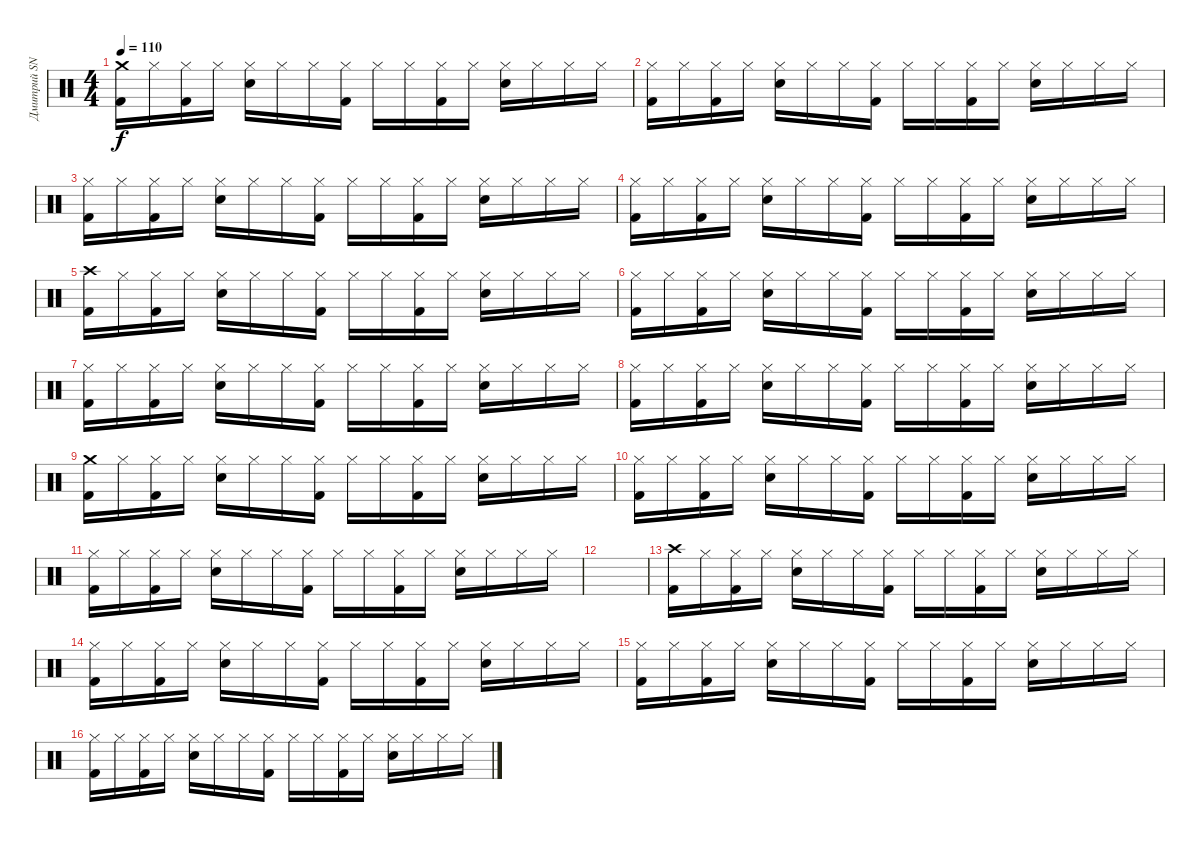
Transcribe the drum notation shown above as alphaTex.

\track ("Дмитрий SNAKE Хакимов" "Дмитрий SN") {instrument percussion}
\staff {score}
\articulation defaults
\ts (4 4)
\tempo 110
\clef neutral
\ks c
("Crash medium (hit)" "Kick (hit) 2").16{dy f} "Hi-Hat (closed)".16 ("Hi-Hat (closed)" "Kick (hit) 2").16 "Hi-Hat (closed)".16 ("Hi-Hat (closed)" "Snare (hit) 2").16 "Hi-Hat (closed)".16 "Hi-Hat (closed)".16 ("Hi-Hat (closed)" "Kick (hit) 2").16 "Hi-Hat (closed)".16 "Hi-Hat (closed)".16 ("Hi-Hat (closed)" "Kick (hit) 2").16 "Hi-Hat (closed)".16 ("Hi-Hat (closed)" "Snare (hit) 2").16 "Hi-Hat (closed)".16 "Hi-Hat (closed)".16 "Hi-Hat (closed)".16 |
("Hi-Hat (closed)" "Kick (hit) 2").16 "Hi-Hat (closed)".16 ("Hi-Hat (closed)" "Kick (hit) 2").16 "Hi-Hat (closed)".16 ("Hi-Hat (closed)" "Snare (hit) 2").16 "Hi-Hat (closed)".16 "Hi-Hat (closed)".16 ("Hi-Hat (closed)" "Kick (hit) 2").16 "Hi-Hat (closed)".16 "Hi-Hat (closed)".16 ("Hi-Hat (closed)" "Kick (hit) 2").16 "Hi-Hat (closed)".16 ("Hi-Hat (closed)" "Snare (hit) 2").16 "Hi-Hat (closed)".16 "Hi-Hat (closed)".16 "Hi-Hat (closed)".16 |
("Hi-Hat (closed)" "Kick (hit) 2").16 "Hi-Hat (closed)".16 ("Hi-Hat (closed)" "Kick (hit) 2").16 "Hi-Hat (closed)".16 ("Hi-Hat (closed)" "Snare (hit) 2").16 "Hi-Hat (closed)".16 "Hi-Hat (closed)".16 ("Hi-Hat (closed)" "Kick (hit) 2").16 "Hi-Hat (closed)".16 "Hi-Hat (closed)".16 ("Hi-Hat (closed)" "Kick (hit) 2").16 "Hi-Hat (closed)".16 ("Hi-Hat (closed)" "Snare (hit) 2").16 "Hi-Hat (closed)".16 "Hi-Hat (closed)".16 "Hi-Hat (closed)".16 |
("Hi-Hat (closed)" "Kick (hit) 2").16 "Hi-Hat (closed)".16 ("Hi-Hat (closed)" "Kick (hit) 2").16 "Hi-Hat (closed)".16 ("Hi-Hat (closed)" "Snare (hit) 2").16 "Hi-Hat (closed)".16 "Hi-Hat (closed)".16 ("Hi-Hat (closed)" "Kick (hit) 2").16 "Hi-Hat (closed)".16 "Hi-Hat (closed)".16 ("Hi-Hat (closed)" "Kick (hit) 2").16 "Hi-Hat (closed)".16 ("Hi-Hat (closed)" "Snare (hit) 2").16 "Hi-Hat (closed)".16 "Hi-Hat (closed)".16 "Hi-Hat (closed)".16 |
("Crash high (hit)" "Kick (hit) 2").16 "Hi-Hat (closed)".16 ("Hi-Hat (closed)" "Kick (hit) 2").16 "Hi-Hat (closed)".16 ("Hi-Hat (closed)" "Snare (hit) 2").16 "Hi-Hat (closed)".16 "Hi-Hat (closed)".16 ("Hi-Hat (closed)" "Kick (hit) 2").16 "Hi-Hat (closed)".16 "Hi-Hat (closed)".16 ("Hi-Hat (closed)" "Kick (hit) 2").16 "Hi-Hat (closed)".16 ("Hi-Hat (closed)" "Snare (hit) 2").16 "Hi-Hat (closed)".16 "Hi-Hat (closed)".16 "Hi-Hat (closed)".16 |
("Hi-Hat (closed)" "Kick (hit) 2").16 "Hi-Hat (closed)".16 ("Hi-Hat (closed)" "Kick (hit) 2").16 "Hi-Hat (closed)".16 ("Hi-Hat (closed)" "Snare (hit) 2").16 "Hi-Hat (closed)".16 "Hi-Hat (closed)".16 ("Hi-Hat (closed)" "Kick (hit) 2").16 "Hi-Hat (closed)".16 "Hi-Hat (closed)".16 ("Hi-Hat (closed)" "Kick (hit) 2").16 "Hi-Hat (closed)".16 ("Hi-Hat (closed)" "Snare (hit) 2").16 "Hi-Hat (closed)".16 "Hi-Hat (closed)".16 "Hi-Hat (closed)".16 |
("Hi-Hat (closed)" "Kick (hit) 2").16 "Hi-Hat (closed)".16 ("Hi-Hat (closed)" "Kick (hit) 2").16 "Hi-Hat (closed)".16 ("Hi-Hat (closed)" "Snare (hit) 2").16 "Hi-Hat (closed)".16 "Hi-Hat (closed)".16 ("Hi-Hat (closed)" "Kick (hit) 2").16 "Hi-Hat (closed)".16 "Hi-Hat (closed)".16 ("Hi-Hat (closed)" "Kick (hit) 2").16 "Hi-Hat (closed)".16 ("Hi-Hat (closed)" "Snare (hit) 2").16 "Hi-Hat (closed)".16 "Hi-Hat (closed)".16 "Hi-Hat (closed)".16 |
("Hi-Hat (closed)" "Kick (hit) 2").16 "Hi-Hat (closed)".16 ("Hi-Hat (closed)" "Kick (hit) 2").16 "Hi-Hat (closed)".16 ("Hi-Hat (closed)" "Snare (hit) 2").16 "Hi-Hat (closed)".16 "Hi-Hat (closed)".16 ("Hi-Hat (closed)" "Kick (hit) 2").16 "Hi-Hat (closed)".16 "Hi-Hat (closed)".16 ("Hi-Hat (closed)" "Kick (hit) 2").16 "Hi-Hat (closed)".16 ("Hi-Hat (closed)" "Snare (hit) 2").16 "Hi-Hat (closed)".16 "Hi-Hat (closed)".16 "Hi-Hat (closed)".16 |
("Crash medium (hit)" "Kick (hit) 2").16 "Hi-Hat (closed)".16 ("Hi-Hat (closed)" "Kick (hit) 2").16 "Hi-Hat (closed)".16 ("Hi-Hat (closed)" "Snare (hit) 2").16 "Hi-Hat (closed)".16 "Hi-Hat (closed)".16 ("Hi-Hat (closed)" "Kick (hit) 2").16 "Hi-Hat (closed)".16 "Hi-Hat (closed)".16 ("Hi-Hat (closed)" "Kick (hit) 2").16 "Hi-Hat (closed)".16 ("Hi-Hat (closed)" "Snare (hit) 2").16 "Hi-Hat (closed)".16 "Hi-Hat (closed)".16 "Hi-Hat (closed)".16 |
("Hi-Hat (closed)" "Kick (hit) 2").16 "Hi-Hat (closed)".16 ("Hi-Hat (closed)" "Kick (hit) 2").16 "Hi-Hat (closed)".16 ("Hi-Hat (closed)" "Snare (hit) 2").16 "Hi-Hat (closed)".16 "Hi-Hat (closed)".16 ("Hi-Hat (closed)" "Kick (hit) 2").16 "Hi-Hat (closed)".16 "Hi-Hat (closed)".16 ("Hi-Hat (closed)" "Kick (hit) 2").16 "Hi-Hat (closed)".16 ("Hi-Hat (closed)" "Snare (hit) 2").16 "Hi-Hat (closed)".16 "Hi-Hat (closed)".16 "Hi-Hat (closed)".16 |
("Hi-Hat (closed)" "Kick (hit) 2").16 "Hi-Hat (closed)".16 ("Hi-Hat (closed)" "Kick (hit) 2").16 "Hi-Hat (closed)".16 ("Hi-Hat (closed)" "Snare (hit) 2").16 "Hi-Hat (closed)".16 "Hi-Hat (closed)".16 ("Hi-Hat (closed)" "Kick (hit) 2").16 "Hi-Hat (closed)".16 "Hi-Hat (closed)".16 ("Hi-Hat (closed)" "Kick (hit) 2").16 "Hi-Hat (closed)".16 ("Hi-Hat (closed)" "Snare (hit) 2").16 "Hi-Hat (closed)".16 "Hi-Hat (closed)".16 "Hi-Hat (closed)".16 |
|
("Crash high (hit)" "Kick (hit) 2").16 "Hi-Hat (closed)".16 ("Hi-Hat (closed)" "Kick (hit) 2").16 "Hi-Hat (closed)".16 ("Hi-Hat (closed)" "Snare (hit) 2").16 "Hi-Hat (closed)".16 "Hi-Hat (closed)".16 ("Hi-Hat (closed)" "Kick (hit) 2").16 "Hi-Hat (closed)".16 "Hi-Hat (closed)".16 ("Hi-Hat (closed)" "Kick (hit) 2").16 "Hi-Hat (closed)".16 ("Hi-Hat (closed)" "Snare (hit) 2").16 "Hi-Hat (closed)".16 "Hi-Hat (closed)".16 "Hi-Hat (closed)".16 |
("Hi-Hat (closed)" "Kick (hit) 2").16 "Hi-Hat (closed)".16 ("Hi-Hat (closed)" "Kick (hit) 2").16 "Hi-Hat (closed)".16 ("Hi-Hat (closed)" "Snare (hit) 2").16 "Hi-Hat (closed)".16 "Hi-Hat (closed)".16 ("Hi-Hat (closed)" "Kick (hit) 2").16 "Hi-Hat (closed)".16 "Hi-Hat (closed)".16 ("Hi-Hat (closed)" "Kick (hit) 2").16 "Hi-Hat (closed)".16 ("Hi-Hat (closed)" "Snare (hit) 2").16 "Hi-Hat (closed)".16 "Hi-Hat (closed)".16 "Hi-Hat (closed)".16 |
("Hi-Hat (closed)" "Kick (hit) 2").16 "Hi-Hat (closed)".16 ("Hi-Hat (closed)" "Kick (hit) 2").16 "Hi-Hat (closed)".16 ("Hi-Hat (closed)" "Snare (hit) 2").16 "Hi-Hat (closed)".16 "Hi-Hat (closed)".16 ("Hi-Hat (closed)" "Kick (hit) 2").16 "Hi-Hat (closed)".16 "Hi-Hat (closed)".16 ("Hi-Hat (closed)" "Kick (hit) 2").16 "Hi-Hat (closed)".16 ("Hi-Hat (closed)" "Snare (hit) 2").16 "Hi-Hat (closed)".16 "Hi-Hat (closed)".16 "Hi-Hat (closed)".16 |
("Hi-Hat (closed)" "Kick (hit) 2").16 "Hi-Hat (closed)".16 ("Hi-Hat (closed)" "Kick (hit) 2").16 "Hi-Hat (closed)".16 ("Hi-Hat (closed)" "Snare (hit) 2").16 "Hi-Hat (closed)".16 "Hi-Hat (closed)".16 ("Hi-Hat (closed)" "Kick (hit) 2").16 "Hi-Hat (closed)".16 "Hi-Hat (closed)".16 ("Hi-Hat (closed)" "Kick (hit) 2").16 "Hi-Hat (closed)".16 ("Hi-Hat (closed)" "Snare (hit) 2").16 "Hi-Hat (closed)".16 "Hi-Hat (closed)".16 "Hi-Hat (closed)".16
